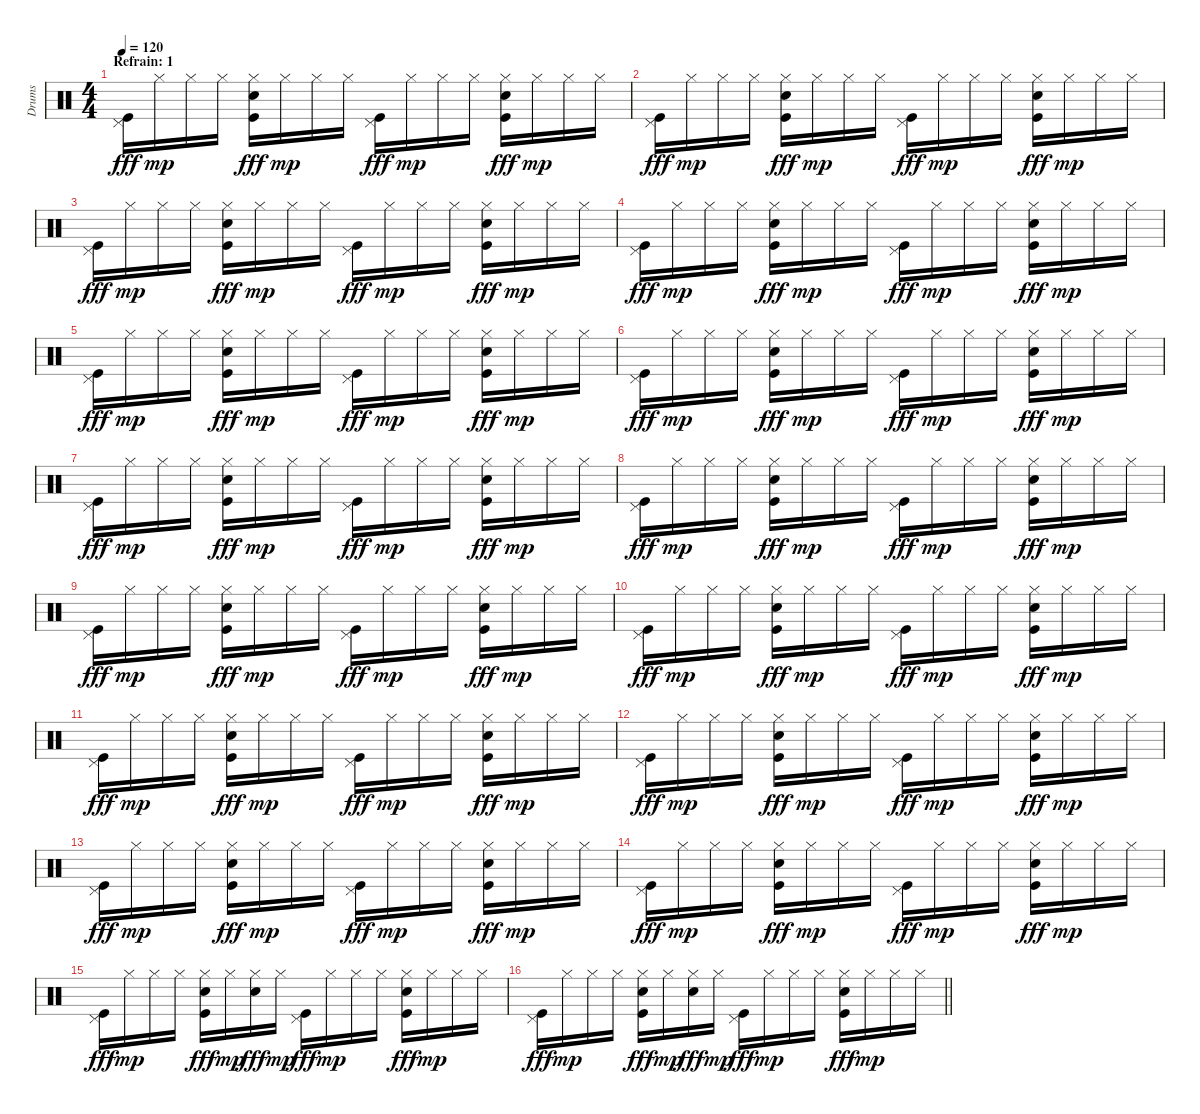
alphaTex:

\track ("Drums" "Drums") {instrument percussion}
\staff {score}
\articulation defaults
\ts (4 4)
\section ("" "Refrain: 1")
\tempo 120
\clef neutral
\ks c
("Pedal Hi-Hat (hit)" "Kick (hit)").16{dy fff} "Hi-Hat (closed)".16{dy mp} "Hi-Hat (closed)".16 "Hi-Hat (closed)".16 ("Hi-Hat (closed)" "Snare (hit) 2" "Kick (hit)").16{dy fff} "Hi-Hat (closed)".16{dy mp} "Hi-Hat (closed)".16 "Hi-Hat (closed)".16 ("Pedal Hi-Hat (hit)" "Kick (hit)").16{dy fff} "Hi-Hat (closed)".16{dy mp} "Hi-Hat (closed)".16 "Hi-Hat (closed)".16 ("Hi-Hat (closed)" "Snare (hit) 2" "Kick (hit)").16{dy fff} "Hi-Hat (closed)".16{dy mp} "Hi-Hat (closed)".16 "Hi-Hat (closed)".16 |
("Pedal Hi-Hat (hit)" "Kick (hit)").16{dy fff} "Hi-Hat (closed)".16{dy mp} "Hi-Hat (closed)".16 "Hi-Hat (closed)".16 ("Hi-Hat (closed)" "Snare (hit) 2" "Kick (hit)").16{dy fff} "Hi-Hat (closed)".16{dy mp} "Hi-Hat (closed)".16 "Hi-Hat (closed)".16 ("Pedal Hi-Hat (hit)" "Kick (hit)").16{dy fff} "Hi-Hat (closed)".16{dy mp} "Hi-Hat (closed)".16 "Hi-Hat (closed)".16 ("Hi-Hat (closed)" "Snare (hit) 2" "Kick (hit)").16{dy fff} "Hi-Hat (closed)".16{dy mp} "Hi-Hat (closed)".16 "Hi-Hat (closed)".16 |
("Pedal Hi-Hat (hit)" "Kick (hit)").16{dy fff} "Hi-Hat (closed)".16{dy mp} "Hi-Hat (closed)".16 "Hi-Hat (closed)".16 ("Hi-Hat (closed)" "Snare (hit) 2" "Kick (hit)").16{dy fff} "Hi-Hat (closed)".16{dy mp} "Hi-Hat (closed)".16 "Hi-Hat (closed)".16 ("Pedal Hi-Hat (hit)" "Kick (hit)").16{dy fff} "Hi-Hat (closed)".16{dy mp} "Hi-Hat (closed)".16 "Hi-Hat (closed)".16 ("Hi-Hat (closed)" "Snare (hit) 2" "Kick (hit)").16{dy fff} "Hi-Hat (closed)".16{dy mp} "Hi-Hat (closed)".16 "Hi-Hat (closed)".16 |
("Pedal Hi-Hat (hit)" "Kick (hit)").16{dy fff} "Hi-Hat (closed)".16{dy mp} "Hi-Hat (closed)".16 "Hi-Hat (closed)".16 ("Hi-Hat (closed)" "Snare (hit) 2" "Kick (hit)").16{dy fff} "Hi-Hat (closed)".16{dy mp} "Hi-Hat (closed)".16 "Hi-Hat (closed)".16 ("Pedal Hi-Hat (hit)" "Kick (hit)").16{dy fff} "Hi-Hat (closed)".16{dy mp} "Hi-Hat (closed)".16 "Hi-Hat (closed)".16 ("Hi-Hat (closed)" "Snare (hit) 2" "Kick (hit)").16{dy fff} "Hi-Hat (closed)".16{dy mp} "Hi-Hat (closed)".16 "Hi-Hat (closed)".16 |
("Pedal Hi-Hat (hit)" "Kick (hit)").16{dy fff} "Hi-Hat (closed)".16{dy mp} "Hi-Hat (closed)".16 "Hi-Hat (closed)".16 ("Hi-Hat (closed)" "Snare (hit) 2" "Kick (hit)").16{dy fff} "Hi-Hat (closed)".16{dy mp} "Hi-Hat (closed)".16 "Hi-Hat (closed)".16 ("Pedal Hi-Hat (hit)" "Kick (hit)").16{dy fff} "Hi-Hat (closed)".16{dy mp} "Hi-Hat (closed)".16 "Hi-Hat (closed)".16 ("Hi-Hat (closed)" "Snare (hit) 2" "Kick (hit)").16{dy fff} "Hi-Hat (closed)".16{dy mp} "Hi-Hat (closed)".16 "Hi-Hat (closed)".16 |
("Pedal Hi-Hat (hit)" "Kick (hit)").16{dy fff} "Hi-Hat (closed)".16{dy mp} "Hi-Hat (closed)".16 "Hi-Hat (closed)".16 ("Hi-Hat (closed)" "Snare (hit) 2" "Kick (hit)").16{dy fff} "Hi-Hat (closed)".16{dy mp} "Hi-Hat (closed)".16 "Hi-Hat (closed)".16 ("Pedal Hi-Hat (hit)" "Kick (hit)").16{dy fff} "Hi-Hat (closed)".16{dy mp} "Hi-Hat (closed)".16 "Hi-Hat (closed)".16 ("Hi-Hat (closed)" "Snare (hit) 2" "Kick (hit)").16{dy fff} "Hi-Hat (closed)".16{dy mp} "Hi-Hat (closed)".16 "Hi-Hat (closed)".16 |
("Pedal Hi-Hat (hit)" "Kick (hit)").16{dy fff} "Hi-Hat (closed)".16{dy mp} "Hi-Hat (closed)".16 "Hi-Hat (closed)".16 ("Hi-Hat (closed)" "Snare (hit) 2" "Kick (hit)").16{dy fff} "Hi-Hat (closed)".16{dy mp} "Hi-Hat (closed)".16 "Hi-Hat (closed)".16 ("Pedal Hi-Hat (hit)" "Kick (hit)").16{dy fff} "Hi-Hat (closed)".16{dy mp} "Hi-Hat (closed)".16 "Hi-Hat (closed)".16 ("Hi-Hat (closed)" "Snare (hit) 2" "Kick (hit)").16{dy fff} "Hi-Hat (closed)".16{dy mp} "Hi-Hat (closed)".16 "Hi-Hat (closed)".16 |
("Pedal Hi-Hat (hit)" "Kick (hit)").16{dy fff} "Hi-Hat (closed)".16{dy mp} "Hi-Hat (closed)".16 "Hi-Hat (closed)".16 ("Hi-Hat (closed)" "Snare (hit) 2" "Kick (hit)").16{dy fff} "Hi-Hat (closed)".16{dy mp} "Hi-Hat (closed)".16 "Hi-Hat (closed)".16 ("Pedal Hi-Hat (hit)" "Kick (hit)").16{dy fff} "Hi-Hat (closed)".16{dy mp} "Hi-Hat (closed)".16 "Hi-Hat (closed)".16 ("Hi-Hat (closed)" "Snare (hit) 2" "Kick (hit)").16{dy fff} "Hi-Hat (closed)".16{dy mp} "Hi-Hat (closed)".16 "Hi-Hat (closed)".16 |
("Pedal Hi-Hat (hit)" "Kick (hit)").16{dy fff} "Hi-Hat (closed)".16{dy mp} "Hi-Hat (closed)".16 "Hi-Hat (closed)".16 ("Hi-Hat (closed)" "Snare (hit) 2" "Kick (hit)").16{dy fff} "Hi-Hat (closed)".16{dy mp} "Hi-Hat (closed)".16 "Hi-Hat (closed)".16 ("Pedal Hi-Hat (hit)" "Kick (hit)").16{dy fff} "Hi-Hat (closed)".16{dy mp} "Hi-Hat (closed)".16 "Hi-Hat (closed)".16 ("Hi-Hat (closed)" "Snare (hit) 2" "Kick (hit)").16{dy fff} "Hi-Hat (closed)".16{dy mp} "Hi-Hat (closed)".16 "Hi-Hat (closed)".16 |
("Pedal Hi-Hat (hit)" "Kick (hit)").16{dy fff} "Hi-Hat (closed)".16{dy mp} "Hi-Hat (closed)".16 "Hi-Hat (closed)".16 ("Hi-Hat (closed)" "Snare (hit) 2" "Kick (hit)").16{dy fff} "Hi-Hat (closed)".16{dy mp} "Hi-Hat (closed)".16 "Hi-Hat (closed)".16 ("Pedal Hi-Hat (hit)" "Kick (hit)").16{dy fff} "Hi-Hat (closed)".16{dy mp} "Hi-Hat (closed)".16 "Hi-Hat (closed)".16 ("Hi-Hat (closed)" "Snare (hit) 2" "Kick (hit)").16{dy fff} "Hi-Hat (closed)".16{dy mp} "Hi-Hat (closed)".16 "Hi-Hat (closed)".16 |
("Pedal Hi-Hat (hit)" "Kick (hit)").16{dy fff} "Hi-Hat (closed)".16{dy mp} "Hi-Hat (closed)".16 "Hi-Hat (closed)".16 ("Hi-Hat (closed)" "Snare (hit) 2" "Kick (hit)").16{dy fff} "Hi-Hat (closed)".16{dy mp} "Hi-Hat (closed)".16 "Hi-Hat (closed)".16 ("Pedal Hi-Hat (hit)" "Kick (hit)").16{dy fff} "Hi-Hat (closed)".16{dy mp} "Hi-Hat (closed)".16 "Hi-Hat (closed)".16 ("Hi-Hat (closed)" "Snare (hit) 2" "Kick (hit)").16{dy fff} "Hi-Hat (closed)".16{dy mp} "Hi-Hat (closed)".16 "Hi-Hat (closed)".16 |
("Pedal Hi-Hat (hit)" "Kick (hit)").16{dy fff} "Hi-Hat (closed)".16{dy mp} "Hi-Hat (closed)".16 "Hi-Hat (closed)".16 ("Hi-Hat (closed)" "Snare (hit) 2" "Kick (hit)").16{dy fff} "Hi-Hat (closed)".16{dy mp} "Hi-Hat (closed)".16 "Hi-Hat (closed)".16 ("Pedal Hi-Hat (hit)" "Kick (hit)").16{dy fff} "Hi-Hat (closed)".16{dy mp} "Hi-Hat (closed)".16 "Hi-Hat (closed)".16 ("Hi-Hat (closed)" "Snare (hit) 2" "Kick (hit)").16{dy fff} "Hi-Hat (closed)".16{dy mp} "Hi-Hat (closed)".16 "Hi-Hat (closed)".16 |
("Pedal Hi-Hat (hit)" "Kick (hit)").16{dy fff} "Hi-Hat (closed)".16{dy mp} "Hi-Hat (closed)".16 "Hi-Hat (closed)".16 ("Hi-Hat (closed)" "Snare (hit) 2" "Kick (hit)").16{dy fff} "Hi-Hat (closed)".16{dy mp} "Hi-Hat (closed)".16 "Hi-Hat (closed)".16 ("Pedal Hi-Hat (hit)" "Kick (hit)").16{dy fff} "Hi-Hat (closed)".16{dy mp} "Hi-Hat (closed)".16 "Hi-Hat (closed)".16 ("Hi-Hat (closed)" "Snare (hit) 2" "Kick (hit)").16{dy fff} "Hi-Hat (closed)".16{dy mp} "Hi-Hat (closed)".16 "Hi-Hat (closed)".16 |
("Pedal Hi-Hat (hit)" "Kick (hit)").16{dy fff} "Hi-Hat (closed)".16{dy mp} "Hi-Hat (closed)".16 "Hi-Hat (closed)".16 ("Hi-Hat (closed)" "Snare (hit) 2" "Kick (hit)").16{dy fff} "Hi-Hat (closed)".16{dy mp} "Hi-Hat (closed)".16 "Hi-Hat (closed)".16 ("Pedal Hi-Hat (hit)" "Kick (hit)").16{dy fff} "Hi-Hat (closed)".16{dy mp} "Hi-Hat (closed)".16 "Hi-Hat (closed)".16 ("Hi-Hat (closed)" "Snare (hit) 2" "Kick (hit)").16{dy fff} "Hi-Hat (closed)".16{dy mp} "Hi-Hat (closed)".16 "Hi-Hat (closed)".16 |
("Pedal Hi-Hat (hit)" "Kick (hit)").16{dy fff} "Hi-Hat (closed)".16{dy mp} "Hi-Hat (closed)".16 "Hi-Hat (closed)".16 ("Hi-Hat (closed)" "Snare (hit) 2" "Kick (hit)").16{dy fff} "Hi-Hat (closed)".16{dy mp} ("Hi-Hat (closed)" "Snare (hit) 2").16{dy fff} "Hi-Hat (closed)".16{dy mp} ("Pedal Hi-Hat (hit)" "Kick (hit)").16{dy fff} "Hi-Hat (closed)".16{dy mp} "Hi-Hat (closed)".16 "Hi-Hat (closed)".16 ("Hi-Hat (closed)" "Snare (hit) 2" "Kick (hit)").16{dy fff} "Hi-Hat (closed)".16{dy mp} "Hi-Hat (closed)".16 "Hi-Hat (closed)".16 |
\barLineRight lightlight
("Pedal Hi-Hat (hit)" "Kick (hit)").16{dy fff} "Hi-Hat (closed)".16{dy mp} "Hi-Hat (closed)".16 "Hi-Hat (closed)".16 ("Hi-Hat (closed)" "Snare (hit) 2" "Kick (hit)").16{dy fff} "Hi-Hat (closed)".16{dy mp} ("Hi-Hat (closed)" "Snare (hit) 2").16{dy fff} "Hi-Hat (closed)".16{dy mp} ("Pedal Hi-Hat (hit)" "Kick (hit)").16{dy fff} "Hi-Hat (closed)".16{dy mp} "Hi-Hat (closed)".16 "Hi-Hat (closed)".16 ("Hi-Hat (closed)" "Snare (hit) 2" "Kick (hit)").16{dy fff} "Hi-Hat (closed)".16{dy mp} "Hi-Hat (closed)".16 "Hi-Hat (closed)".16
